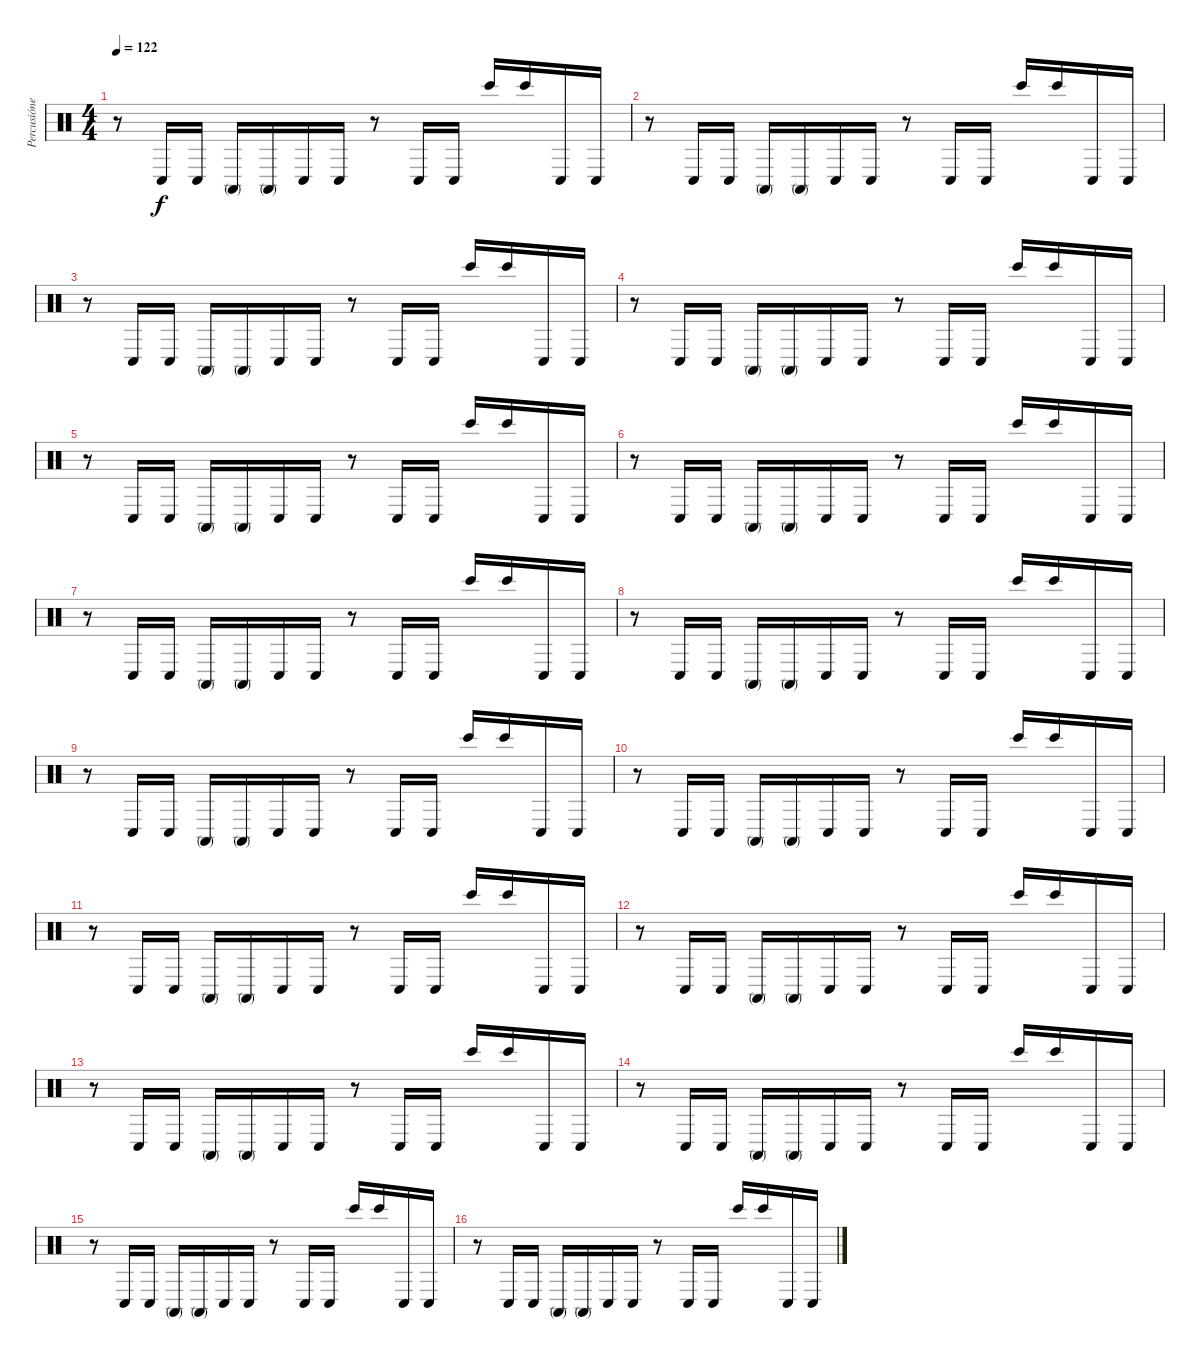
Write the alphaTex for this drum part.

\track ("Percusiónes" "Percusióne") {instrument percussion}
\staff {score}
\articulation defaults
\ts (4 4)
\tempo 122
\clef neutral
\ks c
r.8{dy f} "Conga low (hit)".16 "Conga low (hit)".16 "Conga high (mute)".16 "Conga high (mute)".16 "Conga low (hit)".16 "Conga low (hit)".16 r.8 "Conga low (hit)".16 "Conga low (hit)".16 "Bongo High (hit)".16 "Bongo High (hit)".16 "Conga low (hit)".16 "Conga low (hit)".16 |
r.8 "Conga low (hit)".16 "Conga low (hit)".16 "Conga high (mute)".16 "Conga high (mute)".16 "Conga low (hit)".16 "Conga low (hit)".16 r.8 "Conga low (hit)".16 "Conga low (hit)".16 "Bongo High (hit)".16 "Bongo High (hit)".16 "Conga low (hit)".16 "Conga low (hit)".16 |
r.8 "Conga low (hit)".16 "Conga low (hit)".16 "Conga high (mute)".16 "Conga high (mute)".16 "Conga low (hit)".16 "Conga low (hit)".16 r.8 "Conga low (hit)".16 "Conga low (hit)".16 "Bongo High (hit)".16 "Bongo High (hit)".16 "Conga low (hit)".16 "Conga low (hit)".16 |
r.8 "Conga low (hit)".16 "Conga low (hit)".16 "Conga high (mute)".16 "Conga high (mute)".16 "Conga low (hit)".16 "Conga low (hit)".16 r.8 "Conga low (hit)".16 "Conga low (hit)".16 "Bongo High (hit)".16 "Bongo High (hit)".16 "Conga low (hit)".16 "Conga low (hit)".16 |
r.8 "Conga low (hit)".16 "Conga low (hit)".16 "Conga high (mute)".16 "Conga high (mute)".16 "Conga low (hit)".16 "Conga low (hit)".16 r.8 "Conga low (hit)".16 "Conga low (hit)".16 "Bongo High (hit)".16 "Bongo High (hit)".16 "Conga low (hit)".16 "Conga low (hit)".16 |
r.8 "Conga low (hit)".16 "Conga low (hit)".16 "Conga high (mute)".16 "Conga high (mute)".16 "Conga low (hit)".16 "Conga low (hit)".16 r.8 "Conga low (hit)".16 "Conga low (hit)".16 "Bongo High (hit)".16 "Bongo High (hit)".16 "Conga low (hit)".16 "Conga low (hit)".16 |
r.8 "Conga low (hit)".16 "Conga low (hit)".16 "Conga high (mute)".16 "Conga high (mute)".16 "Conga low (hit)".16 "Conga low (hit)".16 r.8 "Conga low (hit)".16 "Conga low (hit)".16 "Bongo High (hit)".16 "Bongo High (hit)".16 "Conga low (hit)".16 "Conga low (hit)".16 |
r.8 "Conga low (hit)".16 "Conga low (hit)".16 "Conga high (mute)".16 "Conga high (mute)".16 "Conga low (hit)".16 "Conga low (hit)".16 r.8 "Conga low (hit)".16 "Conga low (hit)".16 "Bongo High (hit)".16 "Bongo High (hit)".16 "Conga low (hit)".16 "Conga low (hit)".16 |
r.8 "Conga low (hit)".16 "Conga low (hit)".16 "Conga high (mute)".16 "Conga high (mute)".16 "Conga low (hit)".16 "Conga low (hit)".16 r.8 "Conga low (hit)".16 "Conga low (hit)".16 "Bongo High (hit)".16 "Bongo High (hit)".16 "Conga low (hit)".16 "Conga low (hit)".16 |
r.8 "Conga low (hit)".16 "Conga low (hit)".16 "Conga high (mute)".16 "Conga high (mute)".16 "Conga low (hit)".16 "Conga low (hit)".16 r.8 "Conga low (hit)".16 "Conga low (hit)".16 "Bongo High (hit)".16 "Bongo High (hit)".16 "Conga low (hit)".16 "Conga low (hit)".16 |
r.8 "Conga low (hit)".16 "Conga low (hit)".16 "Conga high (mute)".16 "Conga high (mute)".16 "Conga low (hit)".16 "Conga low (hit)".16 r.8 "Conga low (hit)".16 "Conga low (hit)".16 "Bongo High (hit)".16 "Bongo High (hit)".16 "Conga low (hit)".16 "Conga low (hit)".16 |
r.8 "Conga low (hit)".16 "Conga low (hit)".16 "Conga high (mute)".16 "Conga high (mute)".16 "Conga low (hit)".16 "Conga low (hit)".16 r.8 "Conga low (hit)".16 "Conga low (hit)".16 "Bongo High (hit)".16 "Bongo High (hit)".16 "Conga low (hit)".16 "Conga low (hit)".16 |
r.8 "Conga low (hit)".16 "Conga low (hit)".16 "Conga high (mute)".16 "Conga high (mute)".16 "Conga low (hit)".16 "Conga low (hit)".16 r.8 "Conga low (hit)".16 "Conga low (hit)".16 "Bongo High (hit)".16 "Bongo High (hit)".16 "Conga low (hit)".16 "Conga low (hit)".16 |
r.8 "Conga low (hit)".16 "Conga low (hit)".16 "Conga high (mute)".16 "Conga high (mute)".16 "Conga low (hit)".16 "Conga low (hit)".16 r.8 "Conga low (hit)".16 "Conga low (hit)".16 "Bongo High (hit)".16 "Bongo High (hit)".16 "Conga low (hit)".16 "Conga low (hit)".16 |
r.8 "Conga low (hit)".16 "Conga low (hit)".16 "Conga high (mute)".16 "Conga high (mute)".16 "Conga low (hit)".16 "Conga low (hit)".16 r.8 "Conga low (hit)".16 "Conga low (hit)".16 "Bongo High (hit)".16 "Bongo High (hit)".16 "Conga low (hit)".16 "Conga low (hit)".16 |
r.8 "Conga low (hit)".16 "Conga low (hit)".16 "Conga high (mute)".16 "Conga high (mute)".16 "Conga low (hit)".16 "Conga low (hit)".16 r.8 "Conga low (hit)".16 "Conga low (hit)".16 "Bongo High (hit)".16 "Bongo High (hit)".16 "Conga low (hit)".16 "Conga low (hit)".16
